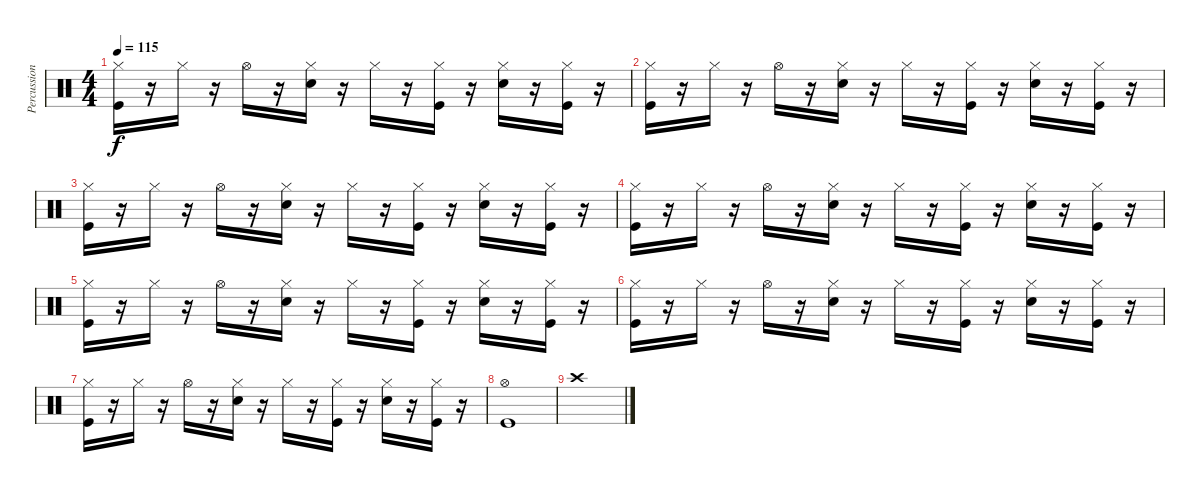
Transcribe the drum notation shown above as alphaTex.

\track ("Percussion" "Percussion") {instrument percussion}
\staff {score}
\articulation defaults
\ts (4 4)
\tempo 115
\clef neutral
\ks c
("Hi-Hat (closed)" "Kick (hit)").16{dy f} r.16 "Hi-Hat (closed)".16 r.16 "Hi-Hat (open)".16 r.16 ("Hi-Hat (closed)" "Snare (hit) 2").16 r.16 "Hi-Hat (closed)".16 r.16 ("Hi-Hat (closed)" "Kick (hit)").16 r.16 ("Hi-Hat (closed)" "Snare (hit) 2").16 r.16 ("Hi-Hat (closed)" "Kick (hit)").16 r.16 |
("Hi-Hat (closed)" "Kick (hit)").16 r.16 "Hi-Hat (closed)".16 r.16 "Hi-Hat (open)".16 r.16 ("Hi-Hat (closed)" "Snare (hit) 2").16 r.16 "Hi-Hat (closed)".16 r.16 ("Hi-Hat (closed)" "Kick (hit)").16 r.16 ("Hi-Hat (closed)" "Snare (hit) 2").16 r.16 ("Hi-Hat (closed)" "Kick (hit)").16 r.16 |
("Hi-Hat (closed)" "Kick (hit)").16 r.16 "Hi-Hat (closed)".16 r.16 "Hi-Hat (open)".16 r.16 ("Hi-Hat (closed)" "Snare (hit) 2").16 r.16 "Hi-Hat (closed)".16 r.16 ("Hi-Hat (closed)" "Kick (hit)").16 r.16 ("Hi-Hat (closed)" "Snare (hit) 2").16 r.16 ("Hi-Hat (closed)" "Kick (hit)").16 r.16 |
("Hi-Hat (closed)" "Kick (hit)").16 r.16 "Hi-Hat (closed)".16 r.16 "Hi-Hat (open)".16 r.16 ("Hi-Hat (closed)" "Snare (hit) 2").16 r.16 "Hi-Hat (closed)".16 r.16 ("Hi-Hat (closed)" "Kick (hit)").16 r.16 ("Hi-Hat (closed)" "Snare (hit) 2").16 r.16 ("Hi-Hat (closed)" "Kick (hit)").16 r.16 |
("Hi-Hat (closed)" "Kick (hit)").16 r.16 "Hi-Hat (closed)".16 r.16 "Hi-Hat (open)".16 r.16 ("Hi-Hat (closed)" "Snare (hit) 2").16 r.16 "Hi-Hat (closed)".16 r.16 ("Hi-Hat (closed)" "Kick (hit)").16 r.16 ("Hi-Hat (closed)" "Snare (hit) 2").16 r.16 ("Hi-Hat (closed)" "Kick (hit)").16 r.16 |
("Hi-Hat (closed)" "Kick (hit)").16 r.16 "Hi-Hat (closed)".16 r.16 "Hi-Hat (open)".16 r.16 ("Hi-Hat (closed)" "Snare (hit) 2").16 r.16 "Hi-Hat (closed)".16 r.16 ("Hi-Hat (closed)" "Kick (hit)").16 r.16 ("Hi-Hat (closed)" "Snare (hit) 2").16 r.16 ("Hi-Hat (closed)" "Kick (hit)").16 r.16 |
("Hi-Hat (closed)" "Kick (hit)").16 r.16 "Hi-Hat (closed)".16 r.16 "Hi-Hat (open)".16 r.16 ("Hi-Hat (closed)" "Snare (hit) 2").16 r.16 "Hi-Hat (closed)".16 r.16 ("Hi-Hat (closed)" "Kick (hit)").16 r.16 ("Hi-Hat (closed)" "Snare (hit) 2").16 r.16 ("Hi-Hat (closed)" "Kick (hit)").16 r.16 |
("Hi-Hat (open)" "Kick (hit)").1 |
"Crash high (hit)".1
